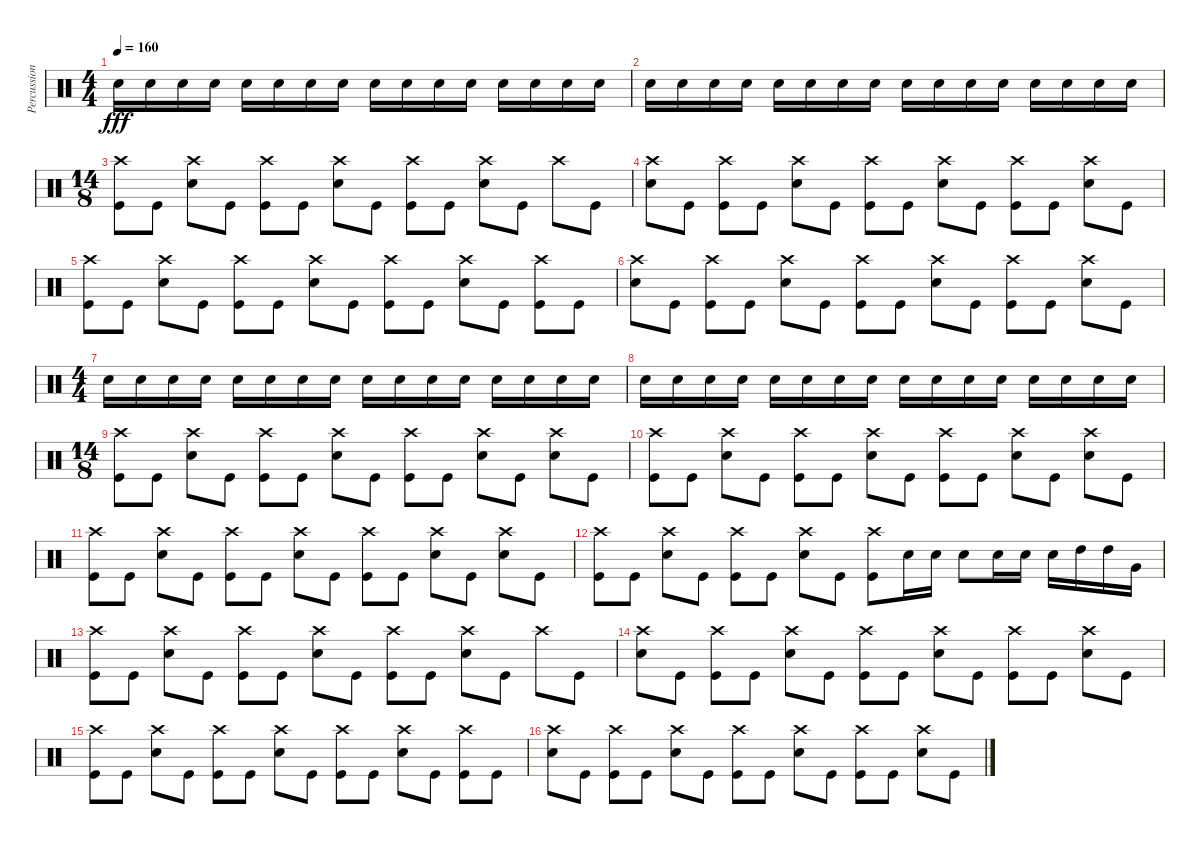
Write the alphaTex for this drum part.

\track ("Percussions" "Percussion") {instrument percussion}
\staff {score}
\articulation defaults
\ts (4 4)
\tempo 160
\clef neutral
\ks c "Snare (hit) 2".16{dy fff} "Snare (hit) 2".16 "Snare (hit) 2".16 "Snare (hit) 2".16 "Snare (hit) 2".16 "Snare (hit) 2".16 "Snare (hit) 2".16 "Snare (hit) 2".16 "Snare (hit) 2".16 "Snare (hit) 2".16 "Snare (hit) 2".16 "Snare (hit) 2".16 "Snare (hit) 2".16 "Snare (hit) 2".16 "Snare (hit) 2".16 "Snare (hit) 2".16
|
"Snare (hit) 2".16 "Snare (hit) 2".16 "Snare (hit) 2".16 "Snare (hit) 2".16 "Snare (hit) 2".16 "Snare (hit) 2".16 "Snare (hit) 2".16 "Snare (hit) 2".16 "Snare (hit) 2".16 "Snare (hit) 2".16 "Snare (hit) 2".16 "Snare (hit) 2".16 "Snare (hit) 2".16 "Snare (hit) 2".16 "Snare (hit) 2".16 "Snare (hit) 2".16 |
\ts (14 8)
("Kick (hit)" "Crash high (hit)").8 "Kick (hit)".8 ("Snare (hit) 2" "Crash high (hit)").8 "Kick (hit)".8 ("Kick (hit)" "Crash high (hit)").8 "Kick (hit)".8 ("Snare (hit) 2" "Crash high (hit)").8 "Kick (hit)".8 ("Kick (hit)" "Crash high (hit)").8 "Kick (hit)".8 ("Snare (hit) 2" "Crash high (hit)").8 "Kick (hit)".8 "Crash high (hit)".8 "Kick (hit)".8 |
("Snare (hit) 2" "Crash high (hit)").8 "Kick (hit)".8 ("Kick (hit)" "Crash high (hit)").8 "Kick (hit)".8 ("Snare (hit) 2" "Crash high (hit)").8 "Kick (hit)".8 ("Kick (hit)" "Crash high (hit)").8 "Kick (hit)".8 ("Snare (hit) 2" "Crash high (hit)").8 "Kick (hit)".8 ("Kick (hit)" "Crash high (hit)").8 "Kick (hit)".8 ("Snare (hit) 2" "Crash high (hit)").8 "Kick (hit)".8 |
("Kick (hit)" "Crash high (hit)").8 "Kick (hit)".8 ("Snare (hit) 2" "Crash high (hit)").8 "Kick (hit)".8 ("Kick (hit)" "Crash high (hit)").8 "Kick (hit)".8 ("Snare (hit) 2" "Crash high (hit)").8 "Kick (hit)".8 ("Kick (hit)" "Crash high (hit)").8 "Kick (hit)".8 ("Snare (hit) 2" "Crash high (hit)").8 "Kick (hit)".8 ("Kick (hit)" "Crash high (hit)").8 "Kick (hit)".8 |
("Snare (hit) 2" "Crash high (hit)").8 "Kick (hit)".8 ("Kick (hit)" "Crash high (hit)").8 "Kick (hit)".8 ("Snare (hit) 2" "Crash high (hit)").8 "Kick (hit)".8 ("Kick (hit)" "Crash high (hit)").8 "Kick (hit)".8 ("Snare (hit) 2" "Crash high (hit)").8 "Kick (hit)".8 ("Kick (hit)" "Crash high (hit)").8 "Kick (hit)".8 ("Snare (hit) 2" "Crash high (hit)").8 "Kick (hit)".8 |
\ts (4 4)
"Snare (hit) 2".16 "Snare (hit) 2".16 "Snare (hit) 2".16 "Snare (hit) 2".16 "Snare (hit) 2".16 "Snare (hit) 2".16 "Snare (hit) 2".16 "Snare (hit) 2".16 "Snare (hit) 2".16 "Snare (hit) 2".16 "Snare (hit) 2".16 "Snare (hit) 2".16 "Snare (hit) 2".16 "Snare (hit) 2".16 "Snare (hit) 2".16 "Snare (hit) 2".16 |
"Snare (hit) 2".16 "Snare (hit) 2".16 "Snare (hit) 2".16 "Snare (hit) 2".16 "Snare (hit) 2".16 "Snare (hit) 2".16 "Snare (hit) 2".16 "Snare (hit) 2".16 "Snare (hit) 2".16 "Snare (hit) 2".16 "Snare (hit) 2".16 "Snare (hit) 2".16 "Snare (hit) 2".16 "Snare (hit) 2".16 "Snare (hit) 2".16 "Snare (hit) 2".16 |
\ts (14 8)
("Kick (hit)" "Crash high (hit)").8 "Kick (hit)".8 ("Snare (hit) 2" "Crash high (hit)").8 "Kick (hit)".8 ("Kick (hit)" "Crash high (hit)").8 "Kick (hit)".8 ("Snare (hit) 2" "Crash high (hit)").8 "Kick (hit)".8 ("Kick (hit)" "Crash high (hit)").8 "Kick (hit)".8 ("Snare (hit) 2" "Crash high (hit)").8 "Kick (hit)".8 ("Snare (hit) 2" "Crash high (hit)").8 "Kick (hit)".8 |
("Kick (hit)" "Crash high (hit)").8 "Kick (hit)".8 ("Snare (hit) 2" "Crash high (hit)").8 "Kick (hit)".8 ("Kick (hit)" "Crash high (hit)").8 "Kick (hit)".8 ("Snare (hit) 2" "Crash high (hit)").8 "Kick (hit)".8 ("Kick (hit)" "Crash high (hit)").8 "Kick (hit)".8 ("Snare (hit) 2" "Crash high (hit)").8 "Kick (hit)".8 ("Snare (hit) 2" "Crash high (hit)").8 "Kick (hit)".8 |
("Kick (hit)" "Crash high (hit)").8 "Kick (hit)".8 ("Snare (hit) 2" "Crash high (hit)").8 "Kick (hit)".8 ("Kick (hit)" "Crash high (hit)").8 "Kick (hit)".8 ("Snare (hit) 2" "Crash high (hit)").8 "Kick (hit)".8 ("Kick (hit)" "Crash high (hit)").8 "Kick (hit)".8 ("Snare (hit) 2" "Crash high (hit)").8 "Kick (hit)".8 ("Snare (hit) 2" "Crash high (hit)").8 "Kick (hit)".8 |
("Kick (hit)" "Crash high (hit)").8 "Kick (hit)".8 ("Snare (hit) 2" "Crash high (hit)").8 "Kick (hit)".8 ("Kick (hit)" "Crash high (hit)").8 "Kick (hit)".8 ("Snare (hit) 2" "Crash high (hit)").8 "Kick (hit)".8 ("Crash high (hit)" "Kick (hit)").8 "Snare (hit) 2".16 "Snare (hit) 2".16 "Snare (hit) 2".8 "Snare (hit) 2".16 "Snare (hit) 2".16 "Snare (hit) 2".16 "High Tom (hit)".16 "High Tom (hit)".16 "Very Low Tom (hit)".16 |
("Kick (hit)" "Crash high (hit)").8 "Kick (hit)".8 ("Snare (hit) 2" "Crash high (hit)").8 "Kick (hit)".8 ("Kick (hit)" "Crash high (hit)").8 "Kick (hit)".8 ("Snare (hit) 2" "Crash high (hit)").8 "Kick (hit)".8 ("Kick (hit)" "Crash high (hit)").8 "Kick (hit)".8 ("Snare (hit) 2" "Crash high (hit)").8 "Kick (hit)".8 "Crash high (hit)".8 "Kick (hit)".8 |
("Snare (hit) 2" "Crash high (hit)").8 "Kick (hit)".8 ("Kick (hit)" "Crash high (hit)").8 "Kick (hit)".8 ("Snare (hit) 2" "Crash high (hit)").8 "Kick (hit)".8 ("Kick (hit)" "Crash high (hit)").8 "Kick (hit)".8 ("Snare (hit) 2" "Crash high (hit)").8 "Kick (hit)".8 ("Kick (hit)" "Crash high (hit)").8 "Kick (hit)".8 ("Snare (hit) 2" "Crash high (hit)").8 "Kick (hit)".8 |
("Kick (hit)" "Crash high (hit)").8 "Kick (hit)".8 ("Snare (hit) 2" "Crash high (hit)").8 "Kick (hit)".8 ("Kick (hit)" "Crash high (hit)").8 "Kick (hit)".8 ("Snare (hit) 2" "Crash high (hit)").8 "Kick (hit)".8 ("Kick (hit)" "Crash high (hit)").8 "Kick (hit)".8 ("Snare (hit) 2" "Crash high (hit)").8 "Kick (hit)".8 ("Kick (hit)" "Crash high (hit)").8 "Kick (hit)".8 |
("Snare (hit) 2" "Crash high (hit)").8 "Kick (hit)".8 ("Kick (hit)" "Crash high (hit)").8 "Kick (hit)".8 ("Snare (hit) 2" "Crash high (hit)").8 "Kick (hit)".8 ("Kick (hit)" "Crash high (hit)").8 "Kick (hit)".8 ("Snare (hit) 2" "Crash high (hit)").8 "Kick (hit)".8 ("Kick (hit)" "Crash high (hit)").8 "Kick (hit)".8 ("Snare (hit) 2" "Crash high (hit)").8 "Kick (hit)".8
